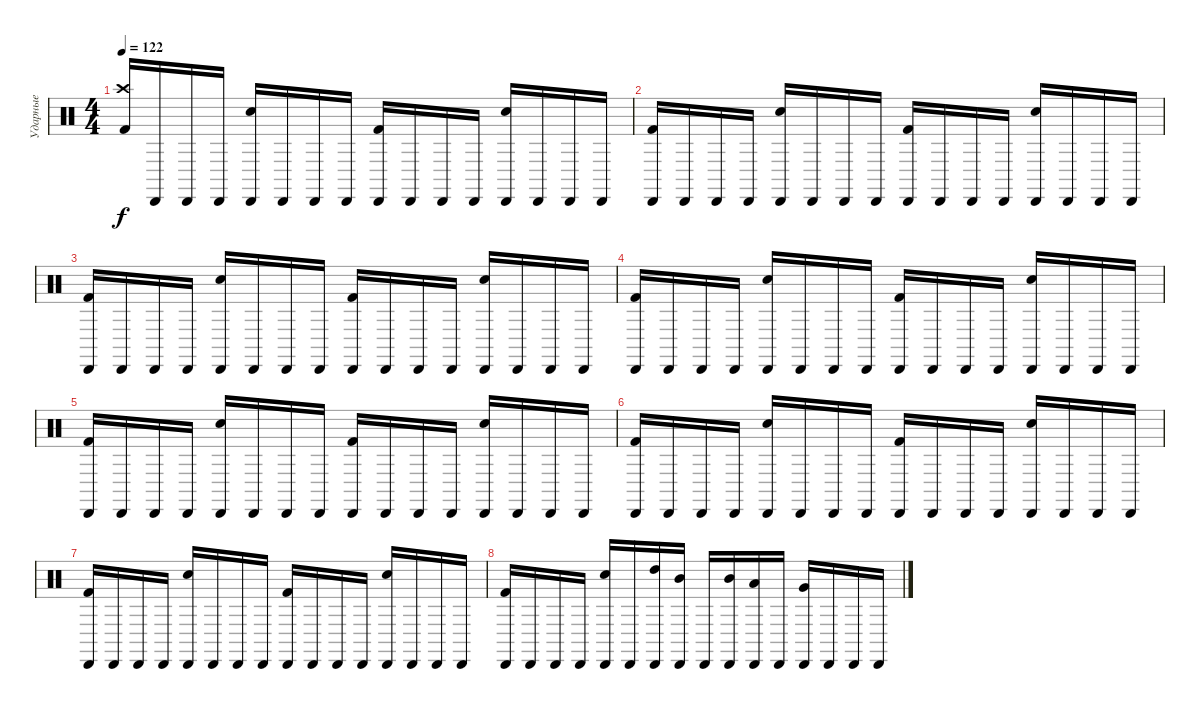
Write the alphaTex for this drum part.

\track ("Ударные" "Ударные") {instrument percussion}
\staff {score}
\articulation defaults
\ts (4 4)
\tempo 122
\clef neutral
\ks c
("Crash high (hit)" "Kick (hit) 2").16{dy f} "Cabasa (hit)".16 "Cabasa (hit)".16 "Cabasa (hit)".16 ("Cabasa (hit)" "Snare (hit) 2").16 "Cabasa (hit)".16 "Cabasa (hit)".16 "Cabasa (hit)".16 ("Cabasa (hit)" "Kick (hit) 2").16 "Cabasa (hit)".16 "Cabasa (hit)".16 "Cabasa (hit)".16 ("Cabasa (hit)" "Snare (hit) 2").16 "Cabasa (hit)".16 "Cabasa (hit)".16 "Cabasa (hit)".16 |
("Cabasa (hit)" "Kick (hit) 2").16 "Cabasa (hit)".16 "Cabasa (hit)".16 "Cabasa (hit)".16 ("Cabasa (hit)" "Snare (hit) 2").16 "Cabasa (hit)".16 "Cabasa (hit)".16 "Cabasa (hit)".16 ("Cabasa (hit)" "Kick (hit) 2").16 "Cabasa (hit)".16 "Cabasa (hit)".16 "Cabasa (hit)".16 ("Cabasa (hit)" "Snare (hit) 2").16 "Cabasa (hit)".16 "Cabasa (hit)".16 "Cabasa (hit)".16 |
("Cabasa (hit)" "Kick (hit) 2").16 "Cabasa (hit)".16 "Cabasa (hit)".16 "Cabasa (hit)".16 ("Cabasa (hit)" "Snare (hit) 2").16 "Cabasa (hit)".16 "Cabasa (hit)".16 "Cabasa (hit)".16 ("Cabasa (hit)" "Kick (hit) 2").16 "Cabasa (hit)".16 "Cabasa (hit)".16 "Cabasa (hit)".16 ("Cabasa (hit)" "Snare (hit) 2").16 "Cabasa (hit)".16 "Cabasa (hit)".16 "Cabasa (hit)".16 |
("Cabasa (hit)" "Kick (hit) 2").16 "Cabasa (hit)".16 "Cabasa (hit)".16 "Cabasa (hit)".16 ("Cabasa (hit)" "Snare (hit) 2").16 "Cabasa (hit)".16 "Cabasa (hit)".16 "Cabasa (hit)".16 ("Cabasa (hit)" "Kick (hit) 2").16 "Cabasa (hit)".16 "Cabasa (hit)".16 "Cabasa (hit)".16 ("Cabasa (hit)" "Snare (hit) 2").16 "Cabasa (hit)".16 "Cabasa (hit)".16 "Cabasa (hit)".16 |
("Cabasa (hit)" "Kick (hit) 2").16 "Cabasa (hit)".16 "Cabasa (hit)".16 "Cabasa (hit)".16 ("Cabasa (hit)" "Snare (hit) 2").16 "Cabasa (hit)".16 "Cabasa (hit)".16 "Cabasa (hit)".16 ("Cabasa (hit)" "Kick (hit) 2").16 "Cabasa (hit)".16 "Cabasa (hit)".16 "Cabasa (hit)".16 ("Cabasa (hit)" "Snare (hit) 2").16 "Cabasa (hit)".16 "Cabasa (hit)".16 "Cabasa (hit)".16 |
("Cabasa (hit)" "Kick (hit) 2").16 "Cabasa (hit)".16 "Cabasa (hit)".16 "Cabasa (hit)".16 ("Cabasa (hit)" "Snare (hit) 2").16 "Cabasa (hit)".16 "Cabasa (hit)".16 "Cabasa (hit)".16 ("Cabasa (hit)" "Kick (hit) 2").16 "Cabasa (hit)".16 "Cabasa (hit)".16 "Cabasa (hit)".16 ("Cabasa (hit)" "Snare (hit) 2").16 "Cabasa (hit)".16 "Cabasa (hit)".16 "Cabasa (hit)".16 |
("Cabasa (hit)" "Kick (hit) 2").16 "Cabasa (hit)".16 "Cabasa (hit)".16 "Cabasa (hit)".16 ("Cabasa (hit)" "Snare (hit) 2").16 "Cabasa (hit)".16 "Cabasa (hit)".16 "Cabasa (hit)".16 ("Cabasa (hit)" "Kick (hit) 2").16 "Cabasa (hit)".16 "Cabasa (hit)".16 "Cabasa (hit)".16 ("Cabasa (hit)" "Snare (hit) 2").16 "Cabasa (hit)".16 "Cabasa (hit)".16 "Cabasa (hit)".16 |
("Cabasa (hit)" "Kick (hit) 2").16 "Cabasa (hit)".16 "Cabasa (hit)".16 "Cabasa (hit)".16 ("Cabasa (hit)" "Snare (hit) 2").16 "Cabasa (hit)".16 ("Cabasa (hit)" "High Tom (hit)").16 ("Cabasa (hit)" "Mid Tom (hit)").16 "Cabasa (hit)".16 ("Cabasa (hit)" "Mid Tom (hit)").16 ("Cabasa (hit)" "Low Tom (hit)").16 "Cabasa (hit)".16 ("Cabasa (hit)" "Very Low Tom (hit)").16 "Cabasa (hit)".16 "Cabasa (hit)".16 "Cabasa (hit)".16
